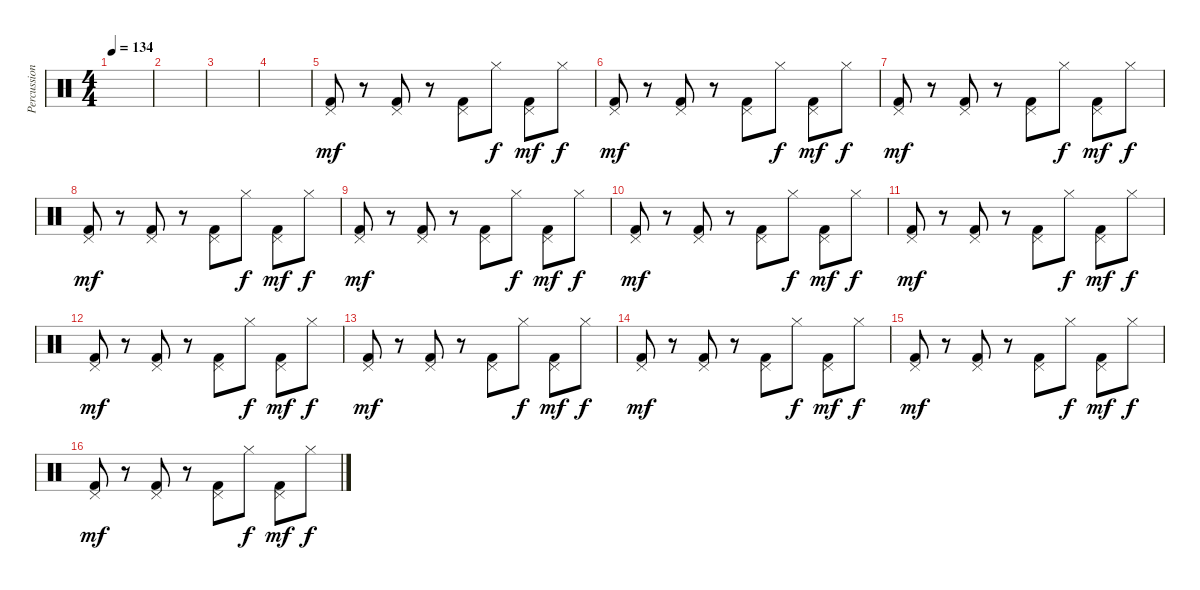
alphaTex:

\track ("Percussion" "Percussion") {instrument percussion}
\staff {score}
\articulation defaults
\ts (4 4)
\tempo 134
\clef neutral
\ks c
|
|
|
|
("Kick (hit) 2" "Pedal Hi-Hat (hit)").8{dy mf} r.8 ("Kick (hit) 2" "Pedal Hi-Hat (hit)").8 r.8 ("Kick (hit) 2" "Pedal Hi-Hat (hit)").8 "Hi-Hat (closed)".8{dy f} ("Kick (hit) 2" "Pedal Hi-Hat (hit)").8{dy mf} "Hi-Hat (closed)".8{dy f} |
("Kick (hit) 2" "Pedal Hi-Hat (hit)").8{dy mf} r.8 ("Kick (hit) 2" "Pedal Hi-Hat (hit)").8 r.8 ("Kick (hit) 2" "Pedal Hi-Hat (hit)").8 "Hi-Hat (closed)".8{dy f} ("Kick (hit) 2" "Pedal Hi-Hat (hit)").8{dy mf} "Hi-Hat (closed)".8{dy f} |
("Kick (hit) 2" "Pedal Hi-Hat (hit)").8{dy mf} r.8 ("Kick (hit) 2" "Pedal Hi-Hat (hit)").8 r.8 ("Kick (hit) 2" "Pedal Hi-Hat (hit)").8 "Hi-Hat (closed)".8{dy f} ("Kick (hit) 2" "Pedal Hi-Hat (hit)").8{dy mf} "Hi-Hat (closed)".8{dy f} |
("Kick (hit) 2" "Pedal Hi-Hat (hit)").8{dy mf} r.8 ("Kick (hit) 2" "Pedal Hi-Hat (hit)").8 r.8 ("Kick (hit) 2" "Pedal Hi-Hat (hit)").8 "Hi-Hat (closed)".8{dy f} ("Kick (hit) 2" "Pedal Hi-Hat (hit)").8{dy mf} "Hi-Hat (closed)".8{dy f} |
("Kick (hit) 2" "Pedal Hi-Hat (hit)").8{dy mf} r.8 ("Kick (hit) 2" "Pedal Hi-Hat (hit)").8 r.8 ("Kick (hit) 2" "Pedal Hi-Hat (hit)").8 "Hi-Hat (closed)".8{dy f} ("Kick (hit) 2" "Pedal Hi-Hat (hit)").8{dy mf} "Hi-Hat (closed)".8{dy f} |
("Kick (hit) 2" "Pedal Hi-Hat (hit)").8{dy mf} r.8 ("Kick (hit) 2" "Pedal Hi-Hat (hit)").8 r.8 ("Kick (hit) 2" "Pedal Hi-Hat (hit)").8 "Hi-Hat (closed)".8{dy f} ("Kick (hit) 2" "Pedal Hi-Hat (hit)").8{dy mf} "Hi-Hat (closed)".8{dy f} |
("Kick (hit) 2" "Pedal Hi-Hat (hit)").8{dy mf} r.8 ("Kick (hit) 2" "Pedal Hi-Hat (hit)").8 r.8 ("Kick (hit) 2" "Pedal Hi-Hat (hit)").8 "Hi-Hat (closed)".8{dy f} ("Kick (hit) 2" "Pedal Hi-Hat (hit)").8{dy mf} "Hi-Hat (closed)".8{dy f} |
("Kick (hit) 2" "Pedal Hi-Hat (hit)").8{dy mf} r.8 ("Kick (hit) 2" "Pedal Hi-Hat (hit)").8 r.8 ("Kick (hit) 2" "Pedal Hi-Hat (hit)").8 "Hi-Hat (closed)".8{dy f} ("Kick (hit) 2" "Pedal Hi-Hat (hit)").8{dy mf} "Hi-Hat (closed)".8{dy f} |
("Kick (hit) 2" "Pedal Hi-Hat (hit)").8{dy mf} r.8 ("Kick (hit) 2" "Pedal Hi-Hat (hit)").8 r.8 ("Kick (hit) 2" "Pedal Hi-Hat (hit)").8 "Hi-Hat (closed)".8{dy f} ("Kick (hit) 2" "Pedal Hi-Hat (hit)").8{dy mf} "Hi-Hat (closed)".8{dy f} |
("Kick (hit) 2" "Pedal Hi-Hat (hit)").8{dy mf} r.8 ("Kick (hit) 2" "Pedal Hi-Hat (hit)").8 r.8 ("Kick (hit) 2" "Pedal Hi-Hat (hit)").8 "Hi-Hat (closed)".8{dy f} ("Kick (hit) 2" "Pedal Hi-Hat (hit)").8{dy mf} "Hi-Hat (closed)".8{dy f} |
("Kick (hit) 2" "Pedal Hi-Hat (hit)").8{dy mf} r.8 ("Kick (hit) 2" "Pedal Hi-Hat (hit)").8 r.8 ("Kick (hit) 2" "Pedal Hi-Hat (hit)").8 "Hi-Hat (closed)".8{dy f} ("Kick (hit) 2" "Pedal Hi-Hat (hit)").8{dy mf} "Hi-Hat (closed)".8{dy f} |
("Kick (hit) 2" "Pedal Hi-Hat (hit)").8{dy mf} r.8 ("Kick (hit) 2" "Pedal Hi-Hat (hit)").8 r.8 ("Kick (hit) 2" "Pedal Hi-Hat (hit)").8 "Hi-Hat (closed)".8{dy f} ("Kick (hit) 2" "Pedal Hi-Hat (hit)").8{dy mf} "Hi-Hat (closed)".8{dy f}
